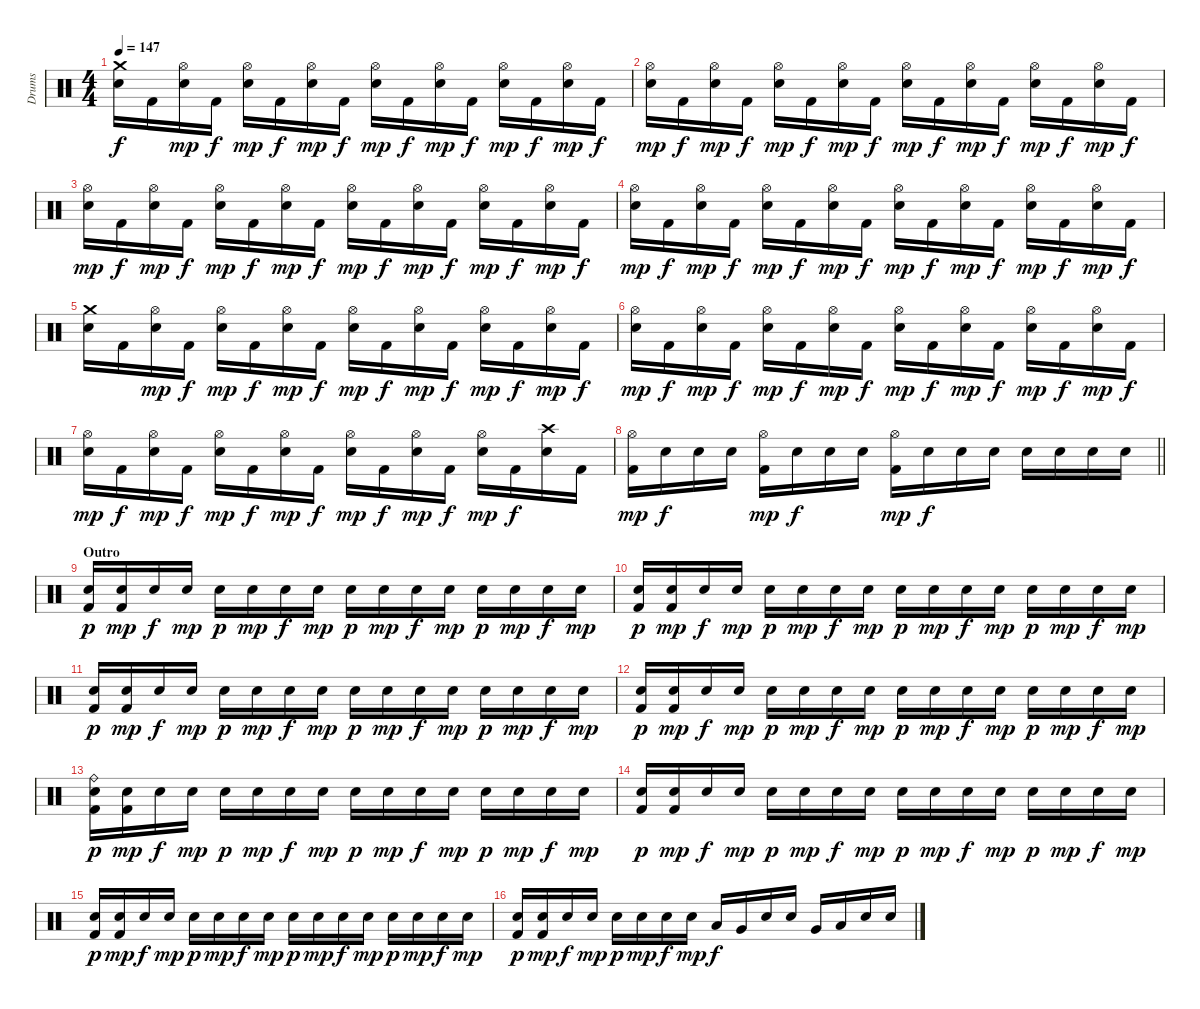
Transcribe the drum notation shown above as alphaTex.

\track ("Drums" "Drums") {instrument percussion}
\staff {score}
\articulation defaults
\ts (4 4)
\tempo 147
\clef neutral
\ks c
("Crash medium (hit)" "Snare (hit) 2").16{dy f} "Kick (hit) 2".16 ("Hi-Hat (open)" "Snare (hit) 2").16{dy mp} "Kick (hit) 2".16{dy f} ("Hi-Hat (open)" "Snare (hit) 2").16{dy mp} "Kick (hit) 2".16{dy f} ("Hi-Hat (open)" "Snare (hit) 2").16{dy mp} "Kick (hit) 2".16{dy f} ("Hi-Hat (open)" "Snare (hit) 2").16{dy mp} "Kick (hit) 2".16{dy f} ("Hi-Hat (open)" "Snare (hit) 2").16{dy mp} "Kick (hit) 2".16{dy f} ("Hi-Hat (open)" "Snare (hit) 2").16{dy mp} "Kick (hit) 2".16{dy f} ("Hi-Hat (open)" "Snare (hit) 2").16{dy mp} "Kick (hit) 2".16{dy f} |
("Hi-Hat (open)" "Snare (hit) 2").16{dy mp} "Kick (hit) 2".16{dy f} ("Hi-Hat (open)" "Snare (hit) 2").16{dy mp} "Kick (hit) 2".16{dy f} ("Hi-Hat (open)" "Snare (hit) 2").16{dy mp} "Kick (hit) 2".16{dy f} ("Hi-Hat (open)" "Snare (hit) 2").16{dy mp} "Kick (hit) 2".16{dy f} ("Hi-Hat (open)" "Snare (hit) 2").16{dy mp} "Kick (hit) 2".16{dy f} ("Hi-Hat (open)" "Snare (hit) 2").16{dy mp} "Kick (hit) 2".16{dy f} ("Hi-Hat (open)" "Snare (hit) 2").16{dy mp} "Kick (hit) 2".16{dy f} ("Hi-Hat (open)" "Snare (hit) 2").16{dy mp} "Kick (hit) 2".16{dy f} |
("Hi-Hat (open)" "Snare (hit) 2").16{dy mp} "Kick (hit) 2".16{dy f} ("Hi-Hat (open)" "Snare (hit) 2").16{dy mp} "Kick (hit) 2".16{dy f} ("Hi-Hat (open)" "Snare (hit) 2").16{dy mp} "Kick (hit) 2".16{dy f} ("Hi-Hat (open)" "Snare (hit) 2").16{dy mp} "Kick (hit) 2".16{dy f} ("Hi-Hat (open)" "Snare (hit) 2").16{dy mp} "Kick (hit) 2".16{dy f} ("Hi-Hat (open)" "Snare (hit) 2").16{dy mp} "Kick (hit) 2".16{dy f} ("Hi-Hat (open)" "Snare (hit) 2").16{dy mp} "Kick (hit) 2".16{dy f} ("Hi-Hat (open)" "Snare (hit) 2").16{dy mp} "Kick (hit) 2".16{dy f} |
("Hi-Hat (open)" "Snare (hit) 2").16{dy mp} "Kick (hit) 2".16{dy f} ("Hi-Hat (open)" "Snare (hit) 2").16{dy mp} "Kick (hit) 2".16{dy f} ("Hi-Hat (open)" "Snare (hit) 2").16{dy mp} "Kick (hit) 2".16{dy f} ("Hi-Hat (open)" "Snare (hit) 2").16{dy mp} "Kick (hit) 2".16{dy f} ("Hi-Hat (open)" "Snare (hit) 2").16{dy mp} "Kick (hit) 2".16{dy f} ("Hi-Hat (open)" "Snare (hit) 2").16{dy mp} "Kick (hit) 2".16{dy f} ("Hi-Hat (open)" "Snare (hit) 2").16{dy mp} "Kick (hit) 2".16{dy f} ("Hi-Hat (open)" "Snare (hit) 2").16{dy mp} "Kick (hit) 2".16{dy f} |
("Crash medium (hit)" "Snare (hit) 2").16 "Kick (hit) 2".16 ("Hi-Hat (open)" "Snare (hit) 2").16{dy mp} "Kick (hit) 2".16{dy f} ("Hi-Hat (open)" "Snare (hit) 2").16{dy mp} "Kick (hit) 2".16{dy f} ("Hi-Hat (open)" "Snare (hit) 2").16{dy mp} "Kick (hit) 2".16{dy f} ("Hi-Hat (open)" "Snare (hit) 2").16{dy mp} "Kick (hit) 2".16{dy f} ("Hi-Hat (open)" "Snare (hit) 2").16{dy mp} "Kick (hit) 2".16{dy f} ("Hi-Hat (open)" "Snare (hit) 2").16{dy mp} "Kick (hit) 2".16{dy f} ("Hi-Hat (open)" "Snare (hit) 2").16{dy mp} "Kick (hit) 2".16{dy f} |
("Hi-Hat (open)" "Snare (hit) 2").16{dy mp} "Kick (hit) 2".16{dy f} ("Hi-Hat (open)" "Snare (hit) 2").16{dy mp} "Kick (hit) 2".16{dy f} ("Hi-Hat (open)" "Snare (hit) 2").16{dy mp} "Kick (hit) 2".16{dy f} ("Hi-Hat (open)" "Snare (hit) 2").16{dy mp} "Kick (hit) 2".16{dy f} ("Hi-Hat (open)" "Snare (hit) 2").16{dy mp} "Kick (hit) 2".16{dy f} ("Hi-Hat (open)" "Snare (hit) 2").16{dy mp} "Kick (hit) 2".16{dy f} ("Hi-Hat (open)" "Snare (hit) 2").16{dy mp} "Kick (hit) 2".16{dy f} ("Hi-Hat (open)" "Snare (hit) 2").16{dy mp} "Kick (hit) 2".16{dy f} |
("Hi-Hat (open)" "Snare (hit) 2").16{dy mp} "Kick (hit) 2".16{dy f} ("Hi-Hat (open)" "Snare (hit) 2").16{dy mp} "Kick (hit) 2".16{dy f} ("Hi-Hat (open)" "Snare (hit) 2").16{dy mp} "Kick (hit) 2".16{dy f} ("Hi-Hat (open)" "Snare (hit) 2").16{dy mp} "Kick (hit) 2".16{dy f} ("Hi-Hat (open)" "Snare (hit) 2").16{dy mp} "Kick (hit) 2".16{dy f} ("Hi-Hat (open)" "Snare (hit) 2").16{dy mp} "Kick (hit) 2".16{dy f} ("Hi-Hat (open)" "Snare (hit) 2").16{dy mp} "Kick (hit) 2".16{dy f} ("Crash high (hit)" "Snare (hit) 2").16 "Kick (hit) 2".16 |
\barLineRight lightlight
("Hi-Hat (open)" "Kick (hit) 2").16{dy mp} "Snare (hit) 2".16{dy f} "Snare (hit) 2".16 "Snare (hit) 2".16 ("Hi-Hat (open)" "Kick (hit) 2").16{dy mp} "Snare (hit) 2".16{dy f} "Snare (hit) 2".16 "Snare (hit) 2".16 ("Hi-Hat (open)" "Kick (hit) 2").16{dy mp} "Snare (hit) 2".16{dy f} "Snare (hit) 2".16 "Snare (hit) 2".16 "Snare (hit) 2".16 "Snare (hit) 2".16 "Snare (hit) 2".16 "Snare (hit) 2".16 |
\section ("" "Outro")
("Snare (hit) 2" "Kick (hit) 2").16{dy p} ("Snare (hit) 2" "Kick (hit) 2").16{dy mp} "Snare (hit) 2".16{dy f} "Snare (hit) 2".16{dy mp} "Snare (hit) 2".16{dy p} "Snare (hit) 2".16{dy mp} "Snare (hit) 2".16{dy f} "Snare (hit) 2".16{dy mp} "Snare (hit) 2".16{dy p} "Snare (hit) 2".16{dy mp} "Snare (hit) 2".16{dy f} "Snare (hit) 2".16{dy mp} "Snare (hit) 2".16{dy p} "Snare (hit) 2".16{dy mp} "Snare (hit) 2".16{dy f} "Snare (hit) 2".16{dy mp} |
("Snare (hit) 2" "Kick (hit) 2").16{dy p} ("Snare (hit) 2" "Kick (hit) 2").16{dy mp} "Snare (hit) 2".16{dy f} "Snare (hit) 2".16{dy mp} "Snare (hit) 2".16{dy p} "Snare (hit) 2".16{dy mp} "Snare (hit) 2".16{dy f} "Snare (hit) 2".16{dy mp} "Snare (hit) 2".16{dy p} "Snare (hit) 2".16{dy mp} "Snare (hit) 2".16{dy f} "Snare (hit) 2".16{dy mp} "Snare (hit) 2".16{dy p} "Snare (hit) 2".16{dy mp} "Snare (hit) 2".16{dy f} "Snare (hit) 2".16{dy mp} |
("Snare (hit) 2" "Kick (hit) 2").16{dy p} ("Snare (hit) 2" "Kick (hit) 2").16{dy mp} "Snare (hit) 2".16{dy f} "Snare (hit) 2".16{dy mp} "Snare (hit) 2".16{dy p} "Snare (hit) 2".16{dy mp} "Snare (hit) 2".16{dy f} "Snare (hit) 2".16{dy mp} "Snare (hit) 2".16{dy p} "Snare (hit) 2".16{dy mp} "Snare (hit) 2".16{dy f} "Snare (hit) 2".16{dy mp} "Snare (hit) 2".16{dy p} "Snare (hit) 2".16{dy mp} "Snare (hit) 2".16{dy f} "Snare (hit) 2".16{dy mp} |
("Snare (hit) 2" "Kick (hit) 2").16{dy p} ("Snare (hit) 2" "Kick (hit) 2").16{dy mp} "Snare (hit) 2".16{dy f} "Snare (hit) 2".16{dy mp} "Snare (hit) 2".16{dy p} "Snare (hit) 2".16{dy mp} "Snare (hit) 2".16{dy f} "Snare (hit) 2".16{dy mp} "Snare (hit) 2".16{dy p} "Snare (hit) 2".16{dy mp} "Snare (hit) 2".16{dy f} "Snare (hit) 2".16{dy mp} "Snare (hit) 2".16{dy p} "Snare (hit) 2".16{dy mp} "Snare (hit) 2".16{dy f} "Snare (hit) 2".16{dy mp} |
("Ride (bell)" "Snare (hit) 2" "Kick (hit) 2").16{dy p} ("Snare (hit) 2" "Kick (hit) 2").16{dy mp} "Snare (hit) 2".16{dy f} "Snare (hit) 2".16{dy mp} "Snare (hit) 2".16{dy p} "Snare (hit) 2".16{dy mp} "Snare (hit) 2".16{dy f} "Snare (hit) 2".16{dy mp} "Snare (hit) 2".16{dy p} "Snare (hit) 2".16{dy mp} "Snare (hit) 2".16{dy f} "Snare (hit) 2".16{dy mp} "Snare (hit) 2".16{dy p} "Snare (hit) 2".16{dy mp} "Snare (hit) 2".16{dy f} "Snare (hit) 2".16{dy mp} |
("Snare (hit) 2" "Kick (hit) 2").16{dy p} ("Snare (hit) 2" "Kick (hit) 2").16{dy mp} "Snare (hit) 2".16{dy f} "Snare (hit) 2".16{dy mp} "Snare (hit) 2".16{dy p} "Snare (hit) 2".16{dy mp} "Snare (hit) 2".16{dy f} "Snare (hit) 2".16{dy mp} "Snare (hit) 2".16{dy p} "Snare (hit) 2".16{dy mp} "Snare (hit) 2".16{dy f} "Snare (hit) 2".16{dy mp} "Snare (hit) 2".16{dy p} "Snare (hit) 2".16{dy mp} "Snare (hit) 2".16{dy f} "Snare (hit) 2".16{dy mp} |
("Snare (hit) 2" "Kick (hit) 2").16{dy p} ("Snare (hit) 2" "Kick (hit) 2").16{dy mp} "Snare (hit) 2".16{dy f} "Snare (hit) 2".16{dy mp} "Snare (hit) 2".16{dy p} "Snare (hit) 2".16{dy mp} "Snare (hit) 2".16{dy f} "Snare (hit) 2".16{dy mp} "Snare (hit) 2".16{dy p} "Snare (hit) 2".16{dy mp} "Snare (hit) 2".16{dy f} "Snare (hit) 2".16{dy mp} "Snare (hit) 2".16{dy p} "Snare (hit) 2".16{dy mp} "Snare (hit) 2".16{dy f} "Snare (hit) 2".16{dy mp} |
("Snare (hit) 2" "Kick (hit) 2").16{dy p} ("Snare (hit) 2" "Kick (hit) 2").16{dy mp} "Snare (hit) 2".16{dy f} "Snare (hit) 2".16{dy mp} "Snare (hit) 2".16{dy p} "Snare (hit) 2".16{dy mp} "Snare (hit) 2".16{dy f} "Snare (hit) 2".16{dy mp} "Low Tom (hit)".16{dy f} "Very Low Tom (hit)".16 "Snare (hit) 2".16 "Snare (hit) 2".16 "Very Low Tom (hit)".16 "Low Floor Tom (hit)".16 "Snare (hit) 2".16 "Snare (hit) 2".16
